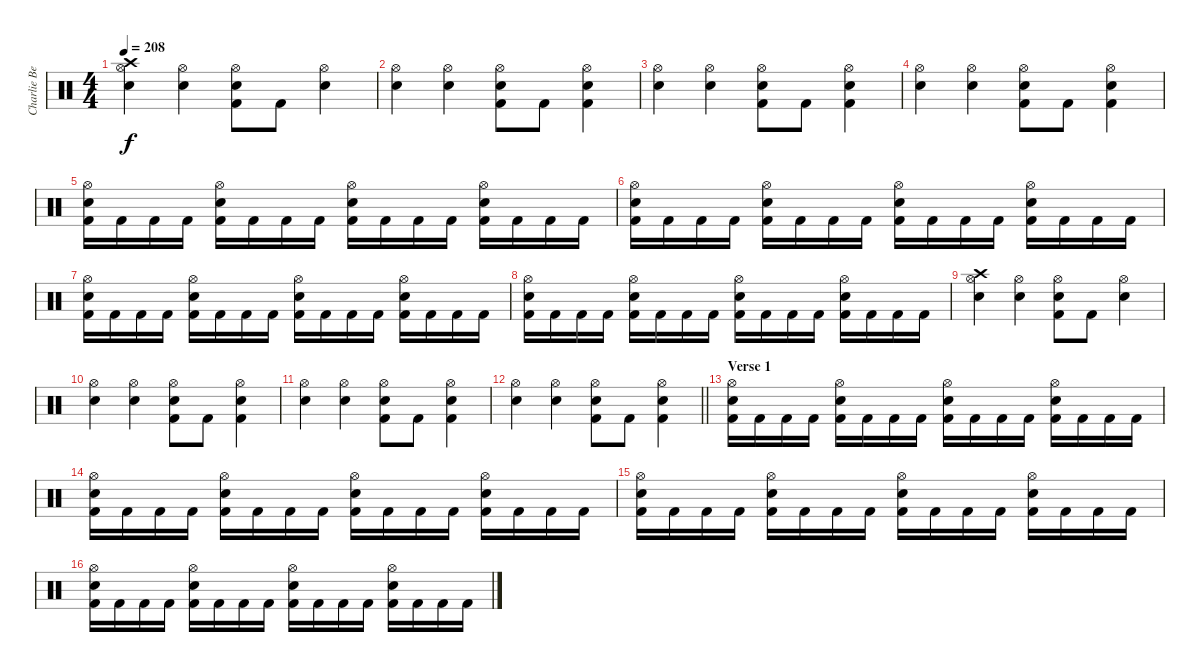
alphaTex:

\track ("Charlie Benate" "Charlie Be") {instrument percussion}
\staff {score}
\articulation defaults
\ts (4 4)
\tempo 208
\clef neutral
\ks c
("Hi-Hat (open)" "Electric Snare (hit)" "Crash high (hit)").4{dy f} ("Hi-Hat (open)" "Electric Snare (hit)").4 ("Hi-Hat (open)" "Electric Snare (hit)" "Kick (hit) 2").8 "Kick (hit) 2".8 ("Hi-Hat (open)" "Electric Snare (hit)").4 |
("Hi-Hat (open)" "Electric Snare (hit)").4 ("Hi-Hat (open)" "Electric Snare (hit)").4 ("Hi-Hat (open)" "Electric Snare (hit)" "Kick (hit) 2").8 "Kick (hit) 2".8 ("Hi-Hat (open)" "Electric Snare (hit)" "Kick (hit) 2").4 |
("Hi-Hat (open)" "Electric Snare (hit)").4 ("Hi-Hat (open)" "Electric Snare (hit)").4 ("Hi-Hat (open)" "Electric Snare (hit)" "Kick (hit) 2").8 "Kick (hit) 2".8 ("Hi-Hat (open)" "Electric Snare (hit)" "Kick (hit) 2").4 |
("Hi-Hat (open)" "Electric Snare (hit)").4 ("Hi-Hat (open)" "Electric Snare (hit)").4 ("Hi-Hat (open)" "Electric Snare (hit)" "Kick (hit) 2").8 "Kick (hit) 2".8 ("Hi-Hat (open)" "Electric Snare (hit)" "Kick (hit) 2").4 |
("Hi-Hat (open)" "Electric Snare (hit)" "Kick (hit) 2").16 "Kick (hit) 2".16 "Kick (hit) 2".16 "Kick (hit) 2".16 ("Hi-Hat (open)" "Electric Snare (hit)" "Kick (hit) 2").16 "Kick (hit) 2".16 "Kick (hit) 2".16 "Kick (hit) 2".16 ("Hi-Hat (open)" "Electric Snare (hit)" "Kick (hit) 2").16 "Kick (hit) 2".16 "Kick (hit) 2".16 "Kick (hit) 2".16 ("Hi-Hat (open)" "Electric Snare (hit)" "Kick (hit) 2").16 "Kick (hit) 2".16 "Kick (hit) 2".16 "Kick (hit) 2".16 |
("Hi-Hat (open)" "Electric Snare (hit)" "Kick (hit) 2").16 "Kick (hit) 2".16 "Kick (hit) 2".16 "Kick (hit) 2".16 ("Hi-Hat (open)" "Electric Snare (hit)" "Kick (hit) 2").16 "Kick (hit) 2".16 "Kick (hit) 2".16 "Kick (hit) 2".16 ("Hi-Hat (open)" "Electric Snare (hit)" "Kick (hit) 2").16 "Kick (hit) 2".16 "Kick (hit) 2".16 "Kick (hit) 2".16 ("Hi-Hat (open)" "Electric Snare (hit)" "Kick (hit) 2").16 "Kick (hit) 2".16 "Kick (hit) 2".16 "Kick (hit) 2".16 |
("Hi-Hat (open)" "Electric Snare (hit)" "Kick (hit) 2").16 "Kick (hit) 2".16 "Kick (hit) 2".16 "Kick (hit) 2".16 ("Hi-Hat (open)" "Electric Snare (hit)" "Kick (hit) 2").16 "Kick (hit) 2".16 "Kick (hit) 2".16 "Kick (hit) 2".16 ("Hi-Hat (open)" "Electric Snare (hit)" "Kick (hit) 2").16 "Kick (hit) 2".16 "Kick (hit) 2".16 "Kick (hit) 2".16 ("Hi-Hat (open)" "Electric Snare (hit)" "Kick (hit) 2").16 "Kick (hit) 2".16 "Kick (hit) 2".16 "Kick (hit) 2".16 |
("Hi-Hat (open)" "Electric Snare (hit)" "Kick (hit) 2").16 "Kick (hit) 2".16 "Kick (hit) 2".16 "Kick (hit) 2".16 ("Hi-Hat (open)" "Electric Snare (hit)" "Kick (hit) 2").16 "Kick (hit) 2".16 "Kick (hit) 2".16 "Kick (hit) 2".16 ("Hi-Hat (open)" "Electric Snare (hit)" "Kick (hit) 2").16 "Kick (hit) 2".16 "Kick (hit) 2".16 "Kick (hit) 2".16 ("Hi-Hat (open)" "Electric Snare (hit)" "Kick (hit) 2").16 "Kick (hit) 2".16 "Kick (hit) 2".16 "Kick (hit) 2".16 |
("Hi-Hat (open)" "Electric Snare (hit)" "Crash high (hit)").4 ("Hi-Hat (open)" "Electric Snare (hit)").4 ("Hi-Hat (open)" "Electric Snare (hit)" "Kick (hit) 2").8 "Kick (hit) 2".8 ("Hi-Hat (open)" "Electric Snare (hit)").4 |
("Hi-Hat (open)" "Electric Snare (hit)").4 ("Hi-Hat (open)" "Electric Snare (hit)").4 ("Hi-Hat (open)" "Electric Snare (hit)" "Kick (hit) 2").8 "Kick (hit) 2".8 ("Hi-Hat (open)" "Electric Snare (hit)" "Kick (hit) 2").4 |
("Hi-Hat (open)" "Electric Snare (hit)").4 ("Hi-Hat (open)" "Electric Snare (hit)").4 ("Hi-Hat (open)" "Electric Snare (hit)" "Kick (hit) 2").8 "Kick (hit) 2".8 ("Hi-Hat (open)" "Electric Snare (hit)" "Kick (hit) 2").4 |
\barLineRight lightlight
("Hi-Hat (open)" "Electric Snare (hit)").4 ("Hi-Hat (open)" "Electric Snare (hit)").4 ("Hi-Hat (open)" "Electric Snare (hit)" "Kick (hit) 2").8 "Kick (hit) 2".8 ("Hi-Hat (open)" "Electric Snare (hit)" "Kick (hit) 2").4 |
\section ("" "Verse 1")
("Hi-Hat (open)" "Electric Snare (hit)" "Kick (hit) 2").16 "Kick (hit) 2".16 "Kick (hit) 2".16 "Kick (hit) 2".16 ("Hi-Hat (open)" "Electric Snare (hit)" "Kick (hit) 2").16 "Kick (hit) 2".16 "Kick (hit) 2".16 "Kick (hit) 2".16 ("Hi-Hat (open)" "Electric Snare (hit)" "Kick (hit) 2").16 "Kick (hit) 2".16 "Kick (hit) 2".16 "Kick (hit) 2".16 ("Hi-Hat (open)" "Electric Snare (hit)" "Kick (hit) 2").16 "Kick (hit) 2".16 "Kick (hit) 2".16 "Kick (hit) 2".16 |
("Hi-Hat (open)" "Electric Snare (hit)" "Kick (hit) 2").16 "Kick (hit) 2".16 "Kick (hit) 2".16 "Kick (hit) 2".16 ("Hi-Hat (open)" "Electric Snare (hit)" "Kick (hit) 2").16 "Kick (hit) 2".16 "Kick (hit) 2".16 "Kick (hit) 2".16 ("Hi-Hat (open)" "Electric Snare (hit)" "Kick (hit) 2").16 "Kick (hit) 2".16 "Kick (hit) 2".16 "Kick (hit) 2".16 ("Hi-Hat (open)" "Electric Snare (hit)" "Kick (hit) 2").16 "Kick (hit) 2".16 "Kick (hit) 2".16 "Kick (hit) 2".16 |
("Hi-Hat (open)" "Electric Snare (hit)" "Kick (hit) 2").16 "Kick (hit) 2".16 "Kick (hit) 2".16 "Kick (hit) 2".16 ("Hi-Hat (open)" "Electric Snare (hit)" "Kick (hit) 2").16 "Kick (hit) 2".16 "Kick (hit) 2".16 "Kick (hit) 2".16 ("Hi-Hat (open)" "Electric Snare (hit)" "Kick (hit) 2").16 "Kick (hit) 2".16 "Kick (hit) 2".16 "Kick (hit) 2".16 ("Hi-Hat (open)" "Electric Snare (hit)" "Kick (hit) 2").16 "Kick (hit) 2".16 "Kick (hit) 2".16 "Kick (hit) 2".16 |
("Hi-Hat (open)" "Electric Snare (hit)" "Kick (hit) 2").16 "Kick (hit) 2".16 "Kick (hit) 2".16 "Kick (hit) 2".16 ("Hi-Hat (open)" "Electric Snare (hit)" "Kick (hit) 2").16 "Kick (hit) 2".16 "Kick (hit) 2".16 "Kick (hit) 2".16 ("Hi-Hat (open)" "Electric Snare (hit)" "Kick (hit) 2").16 "Kick (hit) 2".16 "Kick (hit) 2".16 "Kick (hit) 2".16 ("Hi-Hat (open)" "Electric Snare (hit)" "Kick (hit) 2").16 "Kick (hit) 2".16 "Kick (hit) 2".16 "Kick (hit) 2".16
